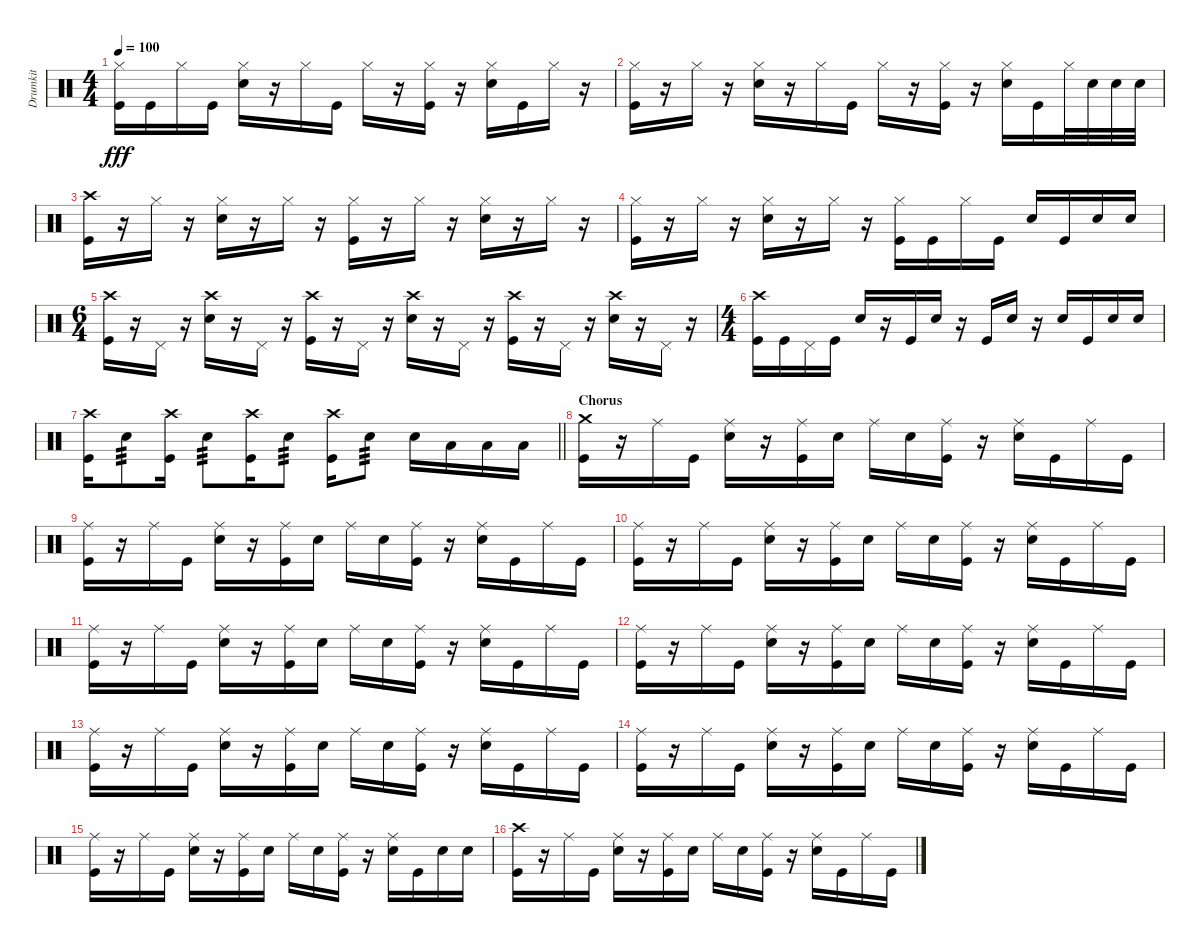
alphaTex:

\track ("Drumkit" "Drumkit") {instrument percussion}
\staff {score}
\articulation defaults
\ts (4 4)
\tempo 100
\clef neutral
\ks c
("Hi-Hat (closed)" "Kick (hit)").16{dy fff} "Kick (hit)".16 "Hi-Hat (closed)".16 "Kick (hit)".16 ("Hi-Hat (closed)" "Snare (hit) 2").16 r.16 "Hi-Hat (closed)".16 "Kick (hit)".16 "Hi-Hat (closed)".16 r.16 ("Hi-Hat (closed)" "Kick (hit)").16 r.16 ("Hi-Hat (closed)" "Snare (hit) 2").16 "Kick (hit)".16 "Hi-Hat (closed)".16 r.16 |
("Hi-Hat (closed)" "Kick (hit)").16 r.16 "Hi-Hat (closed)".16 r.16 ("Hi-Hat (closed)" "Snare (hit) 2").16 r.16 "Hi-Hat (closed)".16 "Kick (hit)".16 "Hi-Hat (closed)".16 r.16 ("Hi-Hat (closed)" "Kick (hit)").16 r.16 ("Hi-Hat (closed)" "Snare (hit) 2").16 "Kick (hit)".16 "Hi-Hat (closed)".32 "Snare (hit) 2".32 "Snare (hit) 2".32 "Snare (hit) 2".32 |
("Crash high (hit)" "Kick (hit)").16 r.16 "Hi-Hat (closed)".16 r.16 ("Hi-Hat (closed)" "Snare (hit) 2").16 r.16 "Hi-Hat (closed)".16 r.16 ("Hi-Hat (closed)" "Kick (hit)").16 r.16 "Hi-Hat (closed)".16 r.16 ("Hi-Hat (closed)" "Snare (hit) 2").16 r.16 "Hi-Hat (closed)".16 r.16 |
("Hi-Hat (closed)" "Kick (hit)").16 r.16 "Hi-Hat (closed)".16 r.16 ("Hi-Hat (closed)" "Snare (hit) 2").16 r.16 "Hi-Hat (closed)".16 r.16 ("Hi-Hat (closed)" "Kick (hit)").16 "Kick (hit)".16 "Hi-Hat (closed)".16 "Kick (hit)".16 "Snare (hit) 2".16 "Kick (hit)".16 "Snare (hit) 2".16 "Snare (hit) 2".16 |
\ts (6 4)
("Crash high (hit)" "Kick (hit)").16 r.16 "Pedal Hi-Hat (hit)".16 r.16 ("Crash high (hit)" "Snare (hit) 2").16 r.16 "Pedal Hi-Hat (hit)".16 r.16 ("Crash high (hit)" "Kick (hit)").16 r.16 "Pedal Hi-Hat (hit)".16 r.16 ("Crash high (hit)" "Snare (hit) 2").16 r.16 "Pedal Hi-Hat (hit)".16 r.16 ("Crash high (hit)" "Kick (hit)").16 r.16 "Pedal Hi-Hat (hit)".16 r.16 ("Crash high (hit)" "Snare (hit) 2").16 r.16 "Pedal Hi-Hat (hit)".16 r.16 |
\ts (4 4)
("Crash high (hit)" "Kick (hit)").16 "Kick (hit)".16 "Pedal Hi-Hat (hit)".16 "Kick (hit)".16 "Snare (hit) 2".16 r.16 "Kick (hit)".16 "Snare (hit) 2".16 r.16 "Kick (hit)".16 "Snare (hit) 2".16 r.16 "Snare (hit) 2".16 "Kick (hit)".16 "Snare (hit) 2".16 "Snare (hit) 2".16 |
\barLineRight lightlight
("Crash high (hit)" "Kick (hit)").16 "Snare (hit) 2".8{tp 3} ("Crash high (hit)" "Kick (hit)").16 "Snare (hit) 2".8{tp 3} ("Crash high (hit)" "Kick (hit)").16 "Snare (hit) 2".8{tp 3} ("Crash high (hit)" "Kick (hit)").16 "Snare (hit) 2".8{tp 3} "Snare (hit) 2".16 "Low Tom (hit)".16 "Low Floor Tom (hit)".16 "Low Floor Tom (hit)".16 |
\section ("" "Chorus")
("Crash medium (hit)" "Kick (hit)").16 r.16 "Ride (middle)".16 "Kick (hit)".16 ("Ride (middle)" "Snare (hit) 2").16 r.16 ("Ride (middle)" "Kick (hit)").16 "Snare (hit) 2".16 "Ride (middle)".16 "Snare (hit) 2".16 ("Ride (middle)" "Kick (hit)").16 r.16 ("Ride (middle)" "Snare (hit) 2").16 "Kick (hit)".16 "Ride (middle)".16 "Kick (hit)".16 |
("Ride (middle)" "Kick (hit)").16 r.16 "Ride (middle)".16 "Kick (hit)".16 ("Ride (middle)" "Snare (hit) 2").16 r.16 ("Ride (middle)" "Kick (hit)").16 "Snare (hit) 2".16 "Ride (middle)".16 "Snare (hit) 2".16 ("Ride (middle)" "Kick (hit)").16 r.16 ("Ride (middle)" "Snare (hit) 2").16 "Kick (hit)".16 "Ride (middle)".16 "Kick (hit)".16 |
("Ride (middle)" "Kick (hit)").16 r.16 "Ride (middle)".16 "Kick (hit)".16 ("Ride (middle)" "Snare (hit) 2").16 r.16 ("Ride (middle)" "Kick (hit)").16 "Snare (hit) 2".16 "Ride (middle)".16 "Snare (hit) 2".16 ("Ride (middle)" "Kick (hit)").16 r.16 ("Ride (middle)" "Snare (hit) 2").16 "Kick (hit)".16 "Ride (middle)".16 "Kick (hit)".16 |
("Ride (middle)" "Kick (hit)").16 r.16 "Ride (middle)".16 "Kick (hit)".16 ("Ride (middle)" "Snare (hit) 2").16 r.16 ("Ride (middle)" "Kick (hit)").16 "Snare (hit) 2".16 "Ride (middle)".16 "Snare (hit) 2".16 ("Ride (middle)" "Kick (hit)").16 r.16 ("Ride (middle)" "Snare (hit) 2").16 "Kick (hit)".16 "Ride (middle)".16 "Kick (hit)".16 |
("Ride (middle)" "Kick (hit)").16 r.16 "Ride (middle)".16 "Kick (hit)".16 ("Ride (middle)" "Snare (hit) 2").16 r.16 ("Ride (middle)" "Kick (hit)").16 "Snare (hit) 2".16 "Ride (middle)".16 "Snare (hit) 2".16 ("Ride (middle)" "Kick (hit)").16 r.16 ("Ride (middle)" "Snare (hit) 2").16 "Kick (hit)".16 "Ride (middle)".16 "Kick (hit)".16 |
("Ride (middle)" "Kick (hit)").16 r.16 "Ride (middle)".16 "Kick (hit)".16 ("Ride (middle)" "Snare (hit) 2").16 r.16 ("Ride (middle)" "Kick (hit)").16 "Snare (hit) 2".16 "Ride (middle)".16 "Snare (hit) 2".16 ("Ride (middle)" "Kick (hit)").16 r.16 ("Ride (middle)" "Snare (hit) 2").16 "Kick (hit)".16 "Ride (middle)".16 "Kick (hit)".16 |
("Ride (middle)" "Kick (hit)").16 r.16 "Ride (middle)".16 "Kick (hit)".16 ("Ride (middle)" "Snare (hit) 2").16 r.16 ("Ride (middle)" "Kick (hit)").16 "Snare (hit) 2".16 "Ride (middle)".16 "Snare (hit) 2".16 ("Ride (middle)" "Kick (hit)").16 r.16 ("Ride (middle)" "Snare (hit) 2").16 "Kick (hit)".16 "Ride (middle)".16 "Kick (hit)".16 |
("Ride (middle)" "Kick (hit)").16 r.16 "Ride (middle)".16 "Kick (hit)".16 ("Ride (middle)" "Snare (hit) 2").16 r.16 ("Ride (middle)" "Kick (hit)").16 "Snare (hit) 2".16 "Ride (middle)".16 "Snare (hit) 2".16 ("Ride (middle)" "Kick (hit)").16 r.16 ("Ride (middle)" "Snare (hit) 2").16 "Kick (hit)".16 "Snare (hit) 2".16 "Snare (hit) 2".16 |
("Crash high (hit)" "Kick (hit)").16 r.16 "Ride (middle)".16 "Kick (hit)".16 ("Ride (middle)" "Snare (hit) 2").16 r.16 ("Ride (middle)" "Kick (hit)").16 "Snare (hit) 2".16 "Ride (middle)".16 "Snare (hit) 2".16 ("Ride (middle)" "Kick (hit)").16 r.16 ("Ride (middle)" "Snare (hit) 2").16 "Kick (hit)".16 "Ride (middle)".16 "Kick (hit)".16
